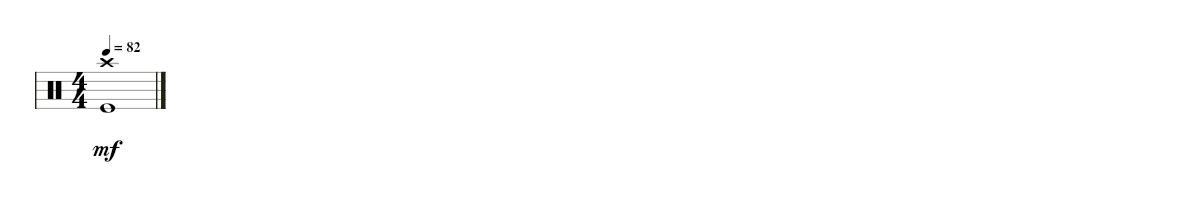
\defaultSystemsLayout 4
\bracketExtendMode groupsimilarinstruments
\singleTrackTrackNamePolicy hidden
\multiTrackTrackNamePolicy hidden
\firstSystemTrackNameOrientation horizontal
\otherSystemsTrackNameOrientation horizontal
\defaultBarNumberDisplay Hide
\track ("Drumkit" "Drums") {instrument percussion}
\staff {score}
\articulation defaults
\ts (4 4)
\tempo 82
\clef neutral
\ks c
("Crash high (hit)" "Kick (hit)").1{dy mf}
